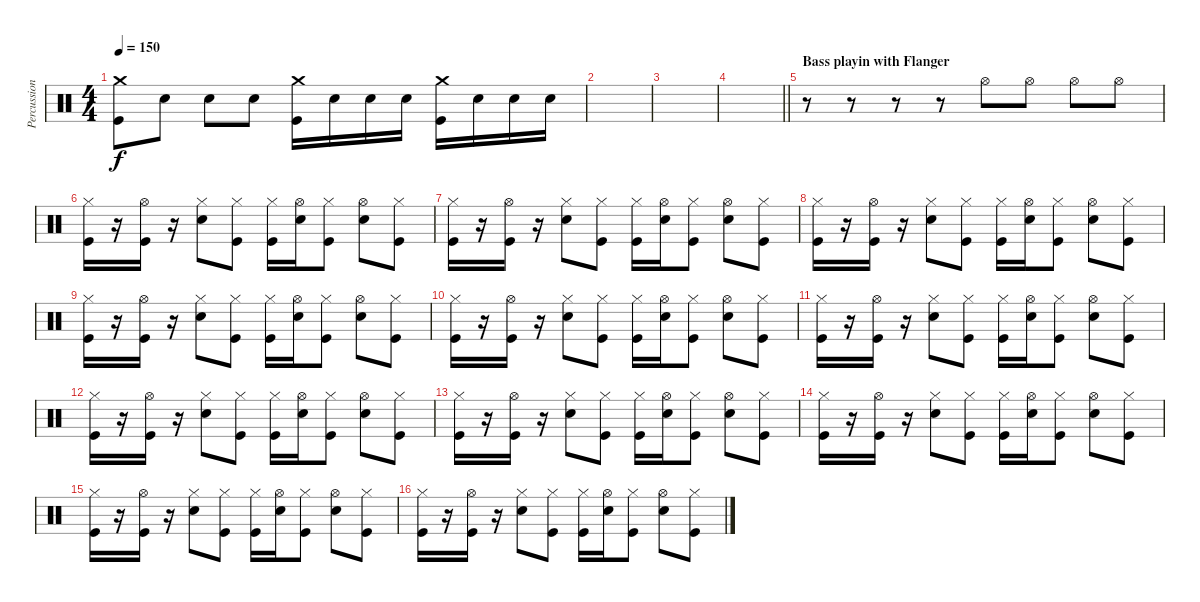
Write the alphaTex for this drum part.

\track ("Percussion" "Percussion") {instrument percussion}
\staff {score}
\articulation defaults
\ts (4 4)
\tempo 150
\clef neutral
\ks c
("Crash medium (hit)" "Kick (hit)").8{dy f} "Electric Snare (hit)".8 "Electric Snare (hit)".8 "Electric Snare (hit)".8 ("Crash medium (hit)" "Kick (hit)").16 "Electric Snare (hit)".16 "Electric Snare (hit)".16 "Electric Snare (hit)".16 ("Crash medium (hit)" "Kick (hit)").16 "Electric Snare (hit)".16 "Electric Snare (hit)".16 "Electric Snare (hit)".16 |
|
|
\barLineRight lightlight
|
\section ("" "Bass playin with Flanger")
r.8 r.8 r.8 r.8 "Hi-Hat (open)".8 "Hi-Hat (open)".8 "Hi-Hat (open)".8 "Hi-Hat (open)".8 |
("Hi-Hat (closed)" "Kick (hit)").16 r.16 ("Hi-Hat (open)" "Kick (hit)").16 r.16 ("Hi-Hat (closed)" "Electric Snare (hit)").8 ("Hi-Hat (closed)" "Kick (hit)").8 ("Hi-Hat (closed)" "Kick (hit)").16 ("Hi-Hat (open)" "Electric Snare (hit)").16 ("Hi-Hat (closed)" "Kick (hit)").8 ("Hi-Hat (open)" "Electric Snare (hit)").8 ("Hi-Hat (closed)" "Kick (hit)").8 |
("Hi-Hat (closed)" "Kick (hit)").16 r.16 ("Hi-Hat (open)" "Kick (hit)").16 r.16 ("Hi-Hat (closed)" "Electric Snare (hit)").8 ("Hi-Hat (closed)" "Kick (hit)").8 ("Hi-Hat (closed)" "Kick (hit)").16 ("Hi-Hat (open)" "Electric Snare (hit)").16 ("Hi-Hat (closed)" "Kick (hit)").8 ("Hi-Hat (open)" "Electric Snare (hit)").8 ("Hi-Hat (closed)" "Kick (hit)").8 |
("Hi-Hat (closed)" "Kick (hit)").16 r.16 ("Hi-Hat (open)" "Kick (hit)").16 r.16 ("Hi-Hat (closed)" "Electric Snare (hit)").8 ("Hi-Hat (closed)" "Kick (hit)").8 ("Hi-Hat (closed)" "Kick (hit)").16 ("Hi-Hat (open)" "Electric Snare (hit)").16 ("Hi-Hat (closed)" "Kick (hit)").8 ("Hi-Hat (open)" "Electric Snare (hit)").8 ("Hi-Hat (closed)" "Kick (hit)").8 |
("Hi-Hat (closed)" "Kick (hit)").16 r.16 ("Hi-Hat (open)" "Kick (hit)").16 r.16 ("Hi-Hat (closed)" "Electric Snare (hit)").8 ("Hi-Hat (closed)" "Kick (hit)").8 ("Hi-Hat (closed)" "Kick (hit)").16 ("Hi-Hat (open)" "Electric Snare (hit)").16 ("Hi-Hat (closed)" "Kick (hit)").8 ("Hi-Hat (open)" "Electric Snare (hit)").8 ("Hi-Hat (closed)" "Kick (hit)").8 |
("Hi-Hat (closed)" "Kick (hit)").16 r.16 ("Hi-Hat (open)" "Kick (hit)").16 r.16 ("Hi-Hat (closed)" "Electric Snare (hit)").8 ("Hi-Hat (closed)" "Kick (hit)").8 ("Hi-Hat (closed)" "Kick (hit)").16 ("Hi-Hat (open)" "Electric Snare (hit)").16 ("Hi-Hat (closed)" "Kick (hit)").8 ("Hi-Hat (open)" "Electric Snare (hit)").8 ("Hi-Hat (closed)" "Kick (hit)").8 |
("Hi-Hat (closed)" "Kick (hit)").16 r.16 ("Hi-Hat (open)" "Kick (hit)").16 r.16 ("Hi-Hat (closed)" "Electric Snare (hit)").8 ("Hi-Hat (closed)" "Kick (hit)").8 ("Hi-Hat (closed)" "Kick (hit)").16 ("Hi-Hat (open)" "Electric Snare (hit)").16 ("Hi-Hat (closed)" "Kick (hit)").8 ("Hi-Hat (open)" "Electric Snare (hit)").8 ("Hi-Hat (closed)" "Kick (hit)").8 |
("Hi-Hat (closed)" "Kick (hit)").16 r.16 ("Hi-Hat (open)" "Kick (hit)").16 r.16 ("Hi-Hat (closed)" "Electric Snare (hit)").8 ("Hi-Hat (closed)" "Kick (hit)").8 ("Hi-Hat (closed)" "Kick (hit)").16 ("Hi-Hat (open)" "Electric Snare (hit)").16 ("Hi-Hat (closed)" "Kick (hit)").8 ("Hi-Hat (open)" "Electric Snare (hit)").8 ("Hi-Hat (closed)" "Kick (hit)").8 |
("Hi-Hat (closed)" "Kick (hit)").16 r.16 ("Hi-Hat (open)" "Kick (hit)").16 r.16 ("Hi-Hat (closed)" "Electric Snare (hit)").8 ("Hi-Hat (closed)" "Kick (hit)").8 ("Hi-Hat (closed)" "Kick (hit)").16 ("Hi-Hat (open)" "Electric Snare (hit)").16 ("Hi-Hat (closed)" "Kick (hit)").8 ("Hi-Hat (open)" "Electric Snare (hit)").8 ("Hi-Hat (closed)" "Kick (hit)").8 |
("Hi-Hat (closed)" "Kick (hit)").16 r.16 ("Hi-Hat (open)" "Kick (hit)").16 r.16 ("Hi-Hat (closed)" "Electric Snare (hit)").8 ("Hi-Hat (closed)" "Kick (hit)").8 ("Hi-Hat (closed)" "Kick (hit)").16 ("Hi-Hat (open)" "Electric Snare (hit)").16 ("Hi-Hat (closed)" "Kick (hit)").8 ("Hi-Hat (open)" "Electric Snare (hit)").8 ("Hi-Hat (closed)" "Kick (hit)").8 |
("Hi-Hat (closed)" "Kick (hit)").16 r.16 ("Hi-Hat (open)" "Kick (hit)").16 r.16 ("Hi-Hat (closed)" "Electric Snare (hit)").8 ("Hi-Hat (closed)" "Kick (hit)").8 ("Hi-Hat (closed)" "Kick (hit)").16 ("Hi-Hat (open)" "Electric Snare (hit)").16 ("Hi-Hat (closed)" "Kick (hit)").8 ("Hi-Hat (open)" "Electric Snare (hit)").8 ("Hi-Hat (closed)" "Kick (hit)").8 |
("Hi-Hat (closed)" "Kick (hit)").16 r.16 ("Hi-Hat (open)" "Kick (hit)").16 r.16 ("Hi-Hat (closed)" "Electric Snare (hit)").8 ("Hi-Hat (closed)" "Kick (hit)").8 ("Hi-Hat (closed)" "Kick (hit)").16 ("Hi-Hat (open)" "Electric Snare (hit)").16 ("Hi-Hat (closed)" "Kick (hit)").8 ("Hi-Hat (open)" "Electric Snare (hit)").8 ("Hi-Hat (closed)" "Kick (hit)").8
